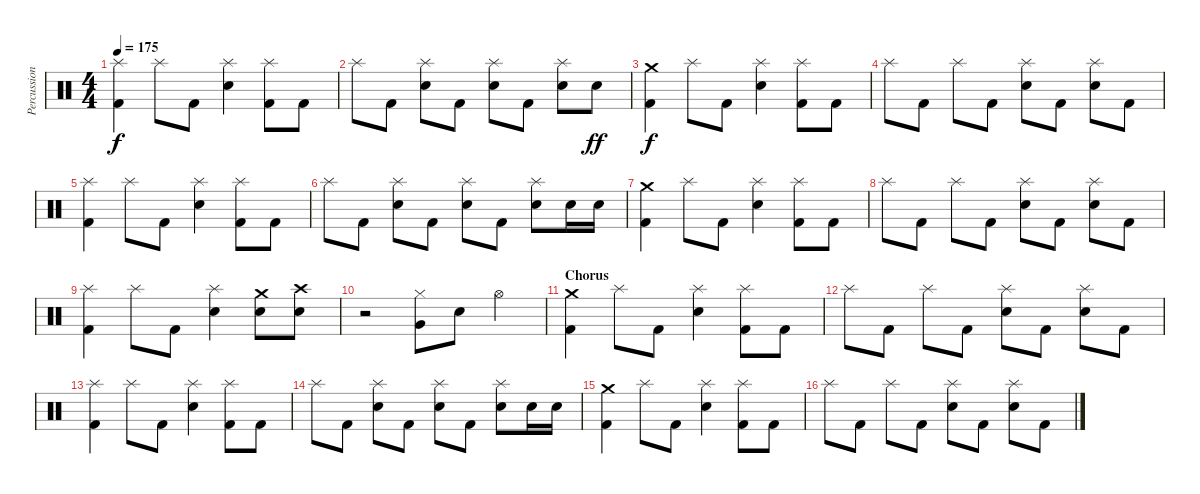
\track ("Percussion" "Percussion") {instrument percussion}
\staff {score}
\articulation defaults
\ts (4 4)
\tempo 175
\clef neutral
\ks c
("Splash (hit)" "Kick (hit) 2").4{dy f} "Splash (hit)".8 "Kick (hit) 2".8 ("Splash (hit)" "Electric Snare (hit)").4 ("Splash (hit)" "Kick (hit) 2").8 "Kick (hit) 2".8 |
"Splash (hit)".8 "Kick (hit) 2".8 ("Splash (hit)" "Electric Snare (hit)").8 "Kick (hit) 2".8 ("Splash (hit)" "Electric Snare (hit)").8 "Kick (hit) 2".8 ("Splash (hit)" "Electric Snare (hit)").8 "Electric Snare (hit)".8{dy ff} |
("Crash medium (hit)" "Kick (hit) 2").4{dy f} "Splash (hit)".8 "Kick (hit) 2".8 ("Splash (hit)" "Electric Snare (hit)").4 ("Splash (hit)" "Kick (hit) 2").8 "Kick (hit) 2".8 |
"Splash (hit)".8 "Kick (hit) 2".8 "Splash (hit)".8 "Kick (hit) 2".8 ("Splash (hit)" "Electric Snare (hit)").8 "Kick (hit) 2".8 ("Splash (hit)" "Electric Snare (hit)").8 "Kick (hit) 2".8 |
("Splash (hit)" "Kick (hit) 2").4 "Splash (hit)".8 "Kick (hit) 2".8 ("Splash (hit)" "Electric Snare (hit)").4 ("Splash (hit)" "Kick (hit) 2").8 "Kick (hit) 2".8 |
"Splash (hit)".8 "Kick (hit) 2".8 ("Splash (hit)" "Electric Snare (hit)").8 "Kick (hit) 2".8 ("Splash (hit)" "Electric Snare (hit)").8 "Kick (hit) 2".8 ("Splash (hit)" "Electric Snare (hit)").8 "Electric Snare (hit)".16 "Electric Snare (hit)".16 |
("Crash medium (hit)" "Kick (hit) 2").4 "Splash (hit)".8 "Kick (hit) 2".8 ("Splash (hit)" "Electric Snare (hit)").4 ("Splash (hit)" "Kick (hit) 2").8 "Kick (hit) 2".8 |
"Splash (hit)".8 "Kick (hit) 2".8 "Splash (hit)".8 "Kick (hit) 2".8 ("Splash (hit)" "Electric Snare (hit)").8 "Kick (hit) 2".8 ("Splash (hit)" "Electric Snare (hit)").8 "Kick (hit) 2".8 |
("Splash (hit)" "Kick (hit) 2").4 "Splash (hit)".8 "Kick (hit) 2".8 ("Splash (hit)" "Electric Snare (hit)").4 ("Crash medium (hit)" "Electric Snare (hit)").8 ("Crash high (hit)" "Electric Snare (hit)").8 |
r.2 ("Hi-Hat (closed)" "Very Low Tom (hit)").8 "Electric Snare (hit)".8 "Hi-Hat (open)".4 |
\section ("" "Chorus")
("Crash medium (hit)" "Kick (hit) 2").4 "Splash (hit)".8 "Kick (hit) 2".8 ("Splash (hit)" "Electric Snare (hit)").4 ("Splash (hit)" "Kick (hit) 2").8 "Kick (hit) 2".8 |
"Splash (hit)".8 "Kick (hit) 2".8 "Splash (hit)".8 "Kick (hit) 2".8 ("Splash (hit)" "Electric Snare (hit)").8 "Kick (hit) 2".8 ("Splash (hit)" "Electric Snare (hit)").8 "Kick (hit) 2".8 |
("Splash (hit)" "Kick (hit) 2").4 "Splash (hit)".8 "Kick (hit) 2".8 ("Splash (hit)" "Electric Snare (hit)").4 ("Splash (hit)" "Kick (hit) 2").8 "Kick (hit) 2".8 |
"Splash (hit)".8 "Kick (hit) 2".8 ("Splash (hit)" "Electric Snare (hit)").8 "Kick (hit) 2".8 ("Splash (hit)" "Electric Snare (hit)").8 "Kick (hit) 2".8 ("Splash (hit)" "Electric Snare (hit)").8 "Electric Snare (hit)".16 "Electric Snare (hit)".16 |
("Crash medium (hit)" "Kick (hit) 2").4 "Splash (hit)".8 "Kick (hit) 2".8 ("Splash (hit)" "Electric Snare (hit)").4 ("Splash (hit)" "Kick (hit) 2").8 "Kick (hit) 2".8 |
"Splash (hit)".8 "Kick (hit) 2".8 "Splash (hit)".8 "Kick (hit) 2".8 ("Splash (hit)" "Electric Snare (hit)").8 "Kick (hit) 2".8 ("Splash (hit)" "Electric Snare (hit)").8 "Kick (hit) 2".8
